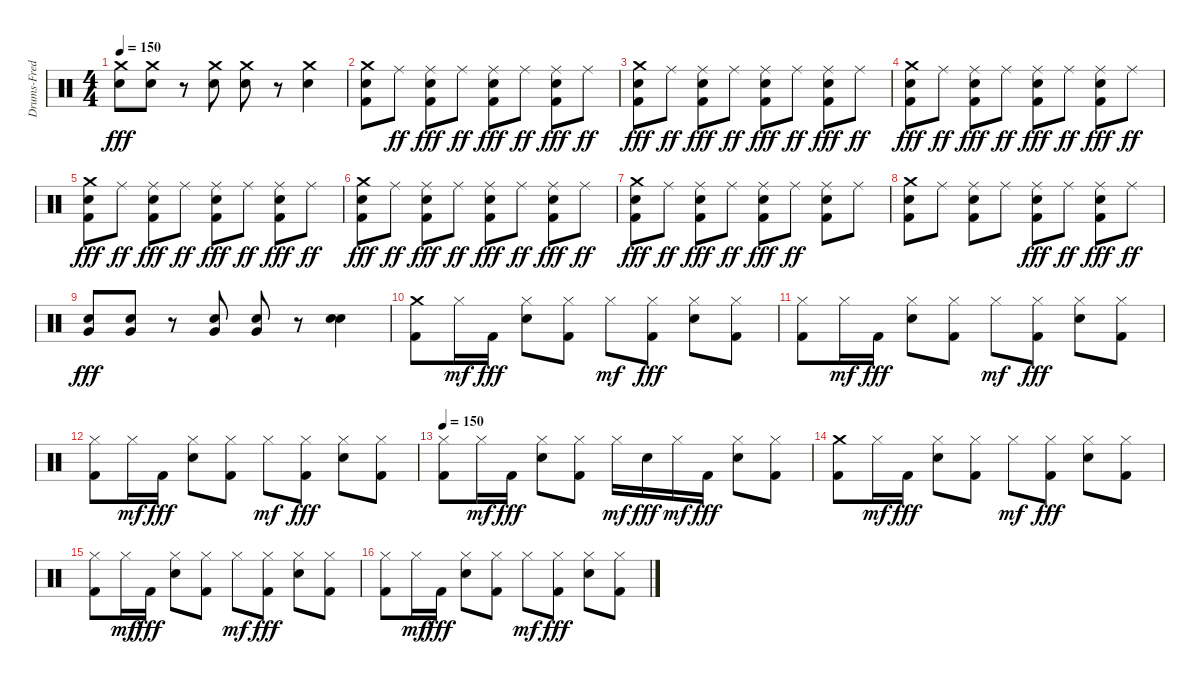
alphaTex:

\track ("Drums-Fred" "Drums-Fred") {instrument percussion}
\staff {score}
\articulation defaults
\ts (4 4)
\tempo 150
\clef neutral
\ks c
("Crash medium (hit)" "Snare (hit) 2").8{dy fff} ("Crash medium (hit)" "Snare (hit) 2").8 r.8 ("Crash medium (hit)" "Snare (hit) 2").8 ("Crash medium (hit)" "Snare (hit) 2").8 r.8 ("Crash medium (hit)" "Snare (hit) 2").4 |
("Crash medium (hit)" "Snare (hit) 2" "Kick (hit) 2").8 "Ride (middle)".8{dy ff} ("Ride (middle)" "Snare (hit) 2" "Kick (hit) 2").8{dy fff} "Ride (middle)".8{dy ff} ("Ride (middle)" "Snare (hit) 2" "Kick (hit) 2").8{dy fff} "Ride (middle)".8{dy ff} ("Ride (middle)" "Snare (hit) 2" "Kick (hit) 2").8{dy fff} "Ride (middle)".8{dy ff} |
("Crash medium (hit)" "Snare (hit) 2" "Kick (hit) 2").8{dy fff} "Ride (middle)".8{dy ff} ("Ride (middle)" "Snare (hit) 2" "Kick (hit) 2").8{dy fff} "Ride (middle)".8{dy ff} ("Ride (middle)" "Snare (hit) 2" "Kick (hit) 2").8{dy fff} "Ride (middle)".8{dy ff} ("Ride (middle)" "Snare (hit) 2" "Kick (hit) 2").8{dy fff} "Ride (middle)".8{dy ff} |
("Crash medium (hit)" "Snare (hit) 2" "Kick (hit) 2").8{dy fff} "Ride (middle)".8{dy ff} ("Ride (middle)" "Snare (hit) 2" "Kick (hit) 2").8{dy fff} "Ride (middle)".8{dy ff} ("Ride (middle)" "Snare (hit) 2" "Kick (hit) 2").8{dy fff} "Ride (middle)".8{dy ff} ("Ride (middle)" "Snare (hit) 2" "Kick (hit) 2").8{dy fff} "Ride (middle)".8{dy ff} |
("Crash medium (hit)" "Snare (hit) 2" "Kick (hit) 2").8{dy fff} "Ride (middle)".8{dy ff} ("Ride (middle)" "Snare (hit) 2" "Kick (hit) 2").8{dy fff} "Ride (middle)".8{dy ff} ("Ride (middle)" "Snare (hit) 2" "Kick (hit) 2").8{dy fff} "Ride (middle)".8{dy ff} ("Ride (middle)" "Snare (hit) 2" "Kick (hit) 2").8{dy fff} "Ride (middle)".8{dy ff} |
("Crash medium (hit)" "Snare (hit) 2" "Kick (hit) 2").8{dy fff} "Ride (middle)".8{dy ff} ("Ride (middle)" "Snare (hit) 2" "Kick (hit) 2").8{dy fff} "Ride (middle)".8{dy ff} ("Ride (middle)" "Snare (hit) 2" "Kick (hit) 2").8{dy fff} "Ride (middle)".8{dy ff} ("Ride (middle)" "Snare (hit) 2" "Kick (hit) 2").8{dy fff} "Ride (middle)".8{dy ff} |
("Crash medium (hit)" "Snare (hit) 2" "Kick (hit) 2").8{dy fff} "Ride (middle)".8{dy ff} ("Ride (middle)" "Snare (hit) 2" "Kick (hit) 2").8{dy fff} "Ride (middle)".8{dy ff} ("Ride (middle)" "Snare (hit) 2" "Kick (hit) 2").8{dy fff} "Ride (middle)".8{dy ff} ("Ride (middle)" "Snare (hit) 2" "Kick (hit) 2").8 "Ride (middle)".8 |
("Crash medium (hit)" "Snare (hit) 2" "Kick (hit) 2").8 "Ride (middle)".8 ("Ride (middle)" "Snare (hit) 2" "Kick (hit) 2").8 "Ride (middle)".8 ("Ride (middle)" "Snare (hit) 2" "Kick (hit) 2").8{dy fff} "Ride (middle)".8{dy ff} ("Ride (middle)" "Snare (hit) 2" "Kick (hit) 2").8{dy fff} "Ride (middle)".8{dy ff} |
("Snare (hit) 2" "Very Low Tom (hit)").8{dy fff} ("Snare (hit) 2" "Very Low Tom (hit)").8 r.8 ("Snare (hit) 2" "Very Low Tom (hit)").8 ("Snare (hit) 2" "Very Low Tom (hit)").8 r.8 ("Snare (hit) 2" "Snare (hit) 2").4 |
("Crash medium (hit)" "Kick (hit) 2").8 "Hi-Hat (closed)".16{dy mf} "Kick (hit) 2".16{dy fff} ("Hi-Hat (closed)" "Snare (hit) 2").8 ("Hi-Hat (closed)" "Kick (hit) 2").8 "Hi-Hat (closed)".8{dy mf} ("Hi-Hat (closed)" "Kick (hit) 2").8{dy fff} ("Hi-Hat (closed)" "Snare (hit) 2").8 ("Hi-Hat (closed)" "Kick (hit) 2").8 |
("Hi-Hat (closed)" "Kick (hit) 2").8 "Hi-Hat (closed)".16{dy mf} "Kick (hit) 2".16{dy fff} ("Hi-Hat (closed)" "Snare (hit) 2").8 ("Hi-Hat (closed)" "Kick (hit) 2").8 "Hi-Hat (closed)".8{dy mf} ("Hi-Hat (closed)" "Kick (hit) 2").8{dy fff} ("Hi-Hat (closed)" "Snare (hit) 2").8 ("Hi-Hat (closed)" "Kick (hit) 2").8 |
("Hi-Hat (closed)" "Kick (hit) 2").8 "Hi-Hat (closed)".16{dy mf} "Kick (hit) 2".16{dy fff} ("Hi-Hat (closed)" "Snare (hit) 2").8 ("Hi-Hat (closed)" "Kick (hit) 2").8 "Hi-Hat (closed)".8{dy mf} ("Hi-Hat (closed)" "Kick (hit) 2").8{dy fff} ("Hi-Hat (closed)" "Snare (hit) 2").8 ("Hi-Hat (closed)" "Kick (hit) 2").8 |
\tempo 150
("Hi-Hat (closed)" "Kick (hit) 2").8 "Hi-Hat (closed)".16{dy mf} "Kick (hit) 2".16{dy fff} ("Hi-Hat (closed)" "Snare (hit) 2").8 ("Hi-Hat (closed)" "Kick (hit) 2").8 "Hi-Hat (closed)".16{dy mf} "Snare (hit) 2".16{dy fff} "Hi-Hat (closed)".16{dy mf} "Kick (hit) 2".16{dy fff} ("Hi-Hat (closed)" "Snare (hit) 2").8 ("Hi-Hat (closed)" "Kick (hit) 2").8 |
("Crash medium (hit)" "Kick (hit) 2").8 "Hi-Hat (closed)".16{dy mf} "Kick (hit) 2".16{dy fff} ("Hi-Hat (closed)" "Snare (hit) 2").8 ("Hi-Hat (closed)" "Kick (hit) 2").8 "Hi-Hat (closed)".8{dy mf} ("Hi-Hat (closed)" "Kick (hit) 2").8{dy fff} ("Hi-Hat (closed)" "Snare (hit) 2").8 ("Hi-Hat (closed)" "Kick (hit) 2").8 |
("Hi-Hat (closed)" "Kick (hit) 2").8 "Hi-Hat (closed)".16{dy mf} "Kick (hit) 2".16{dy fff} ("Hi-Hat (closed)" "Snare (hit) 2").8 ("Hi-Hat (closed)" "Kick (hit) 2").8 "Hi-Hat (closed)".8{dy mf} ("Hi-Hat (closed)" "Kick (hit) 2").8{dy fff} ("Hi-Hat (closed)" "Snare (hit) 2").8 ("Hi-Hat (closed)" "Kick (hit) 2").8 |
("Hi-Hat (closed)" "Kick (hit) 2").8 "Hi-Hat (closed)".16{dy mf} "Kick (hit) 2".16{dy fff} ("Hi-Hat (closed)" "Snare (hit) 2").8 ("Hi-Hat (closed)" "Kick (hit) 2").8 "Hi-Hat (closed)".8{dy mf} ("Hi-Hat (closed)" "Kick (hit) 2").8{dy fff} ("Hi-Hat (closed)" "Snare (hit) 2").8 ("Hi-Hat (closed)" "Kick (hit) 2").8
